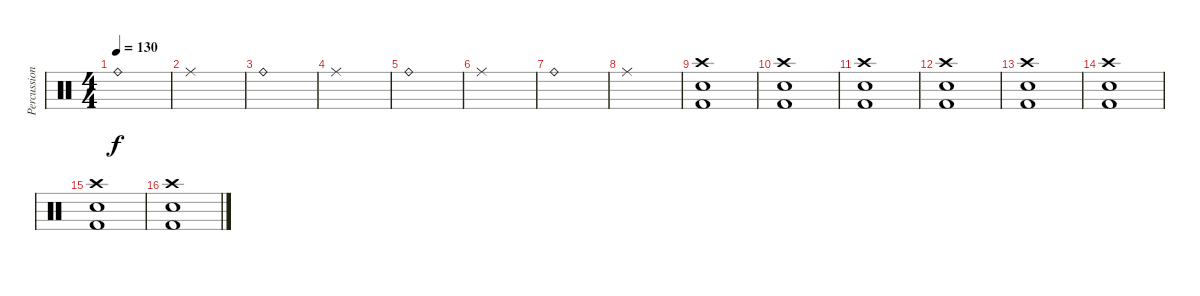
\track ("Percussion" "Percussion") {instrument percussion}
\staff {score}
\articulation defaults
\ts (4 4)
\tempo 130
\clef neutral
\ks c "Ride (bell)".1{dy f}
|
"Ride (middle)".1 |
"Ride (bell)".1 |
"Ride (middle)".1 |
"Ride (bell)".1 |
"Ride (middle)".1 |
"Ride (bell)".1 |
"Ride (middle)".1 |
("Crash high (hit)" "Snare (hit) 2" "Kick (hit) 2").1 |
("Crash high (hit)" "Snare (hit) 2" "Kick (hit) 2").1 |
("Crash high (hit)" "Snare (hit) 2" "Kick (hit) 2").1 |
("Crash high (hit)" "Snare (hit) 2" "Kick (hit) 2").1 |
("Crash high (hit)" "Snare (hit) 2" "Kick (hit) 2").1 |
("Crash high (hit)" "Snare (hit) 2" "Kick (hit) 2").1 |
("Crash high (hit)" "Snare (hit) 2" "Kick (hit) 2").1 |
("Crash high (hit)" "Snare (hit) 2" "Kick (hit) 2").1
